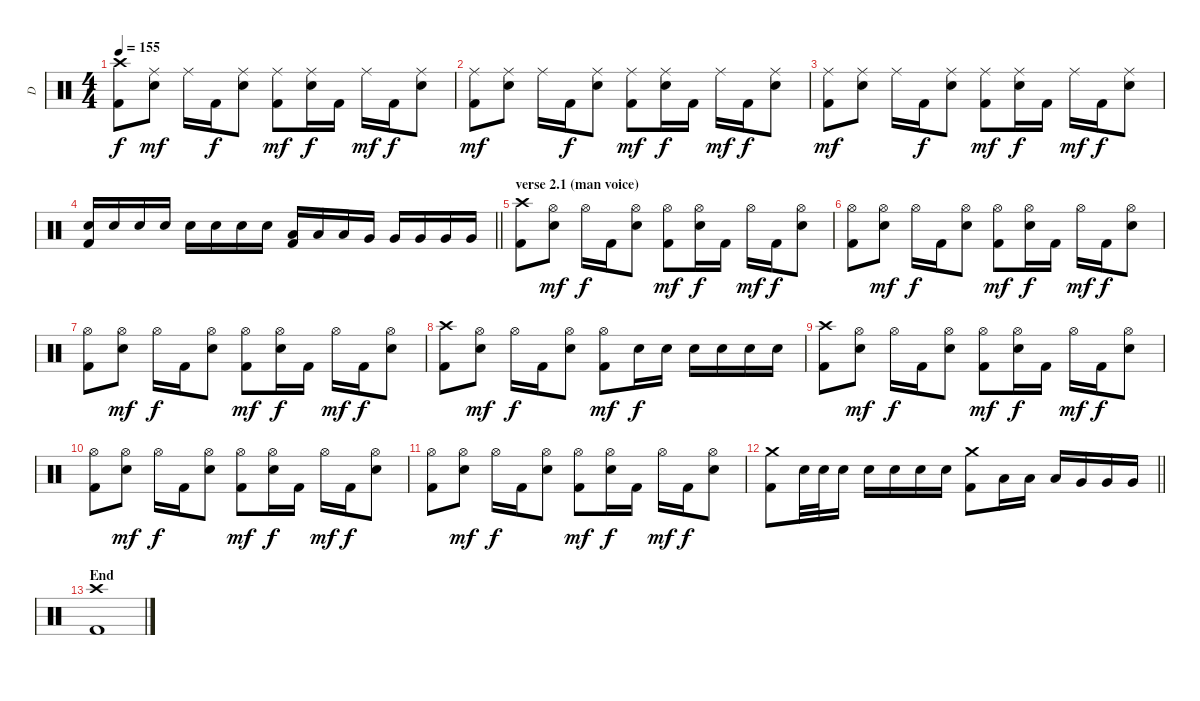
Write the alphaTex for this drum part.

\track ("D" "D") {instrument percussion}
\staff {score}
\articulation defaults
\ts (4 4)
\tempo 155
\clef neutral
\ks c
("Kick (hit) 2" "Crash high (hit)").8{dy f} ("Electric Snare (hit)" "Ride (middle)").8{dy mf} "Ride (middle)".16 "Kick (hit) 2".16{dy f} ("Electric Snare (hit)" "Ride (middle)").8 ("Kick (hit) 2" "Ride (middle)").8{dy mf} ("Electric Snare (hit)" "Ride (middle)").16{dy f} "Kick (hit) 2".16 "Ride (middle)".16{dy mf} "Kick (hit) 2".16{dy f} ("Electric Snare (hit)" "Ride (middle)").8 |
("Kick (hit) 2" "Ride (middle)").8{dy mf} ("Electric Snare (hit)" "Ride (middle)").8 "Ride (middle)".16 "Kick (hit) 2".16{dy f} ("Electric Snare (hit)" "Ride (middle)").8 ("Kick (hit) 2" "Ride (middle)").8{dy mf} ("Electric Snare (hit)" "Ride (middle)").16{dy f} "Kick (hit) 2".16 "Ride (middle)".16{dy mf} "Kick (hit) 2".16{dy f} ("Electric Snare (hit)" "Ride (middle)").8 |
("Kick (hit) 2" "Ride (middle)").8{dy mf} ("Electric Snare (hit)" "Ride (middle)").8 "Ride (middle)".16 "Kick (hit) 2".16{dy f} ("Electric Snare (hit)" "Ride (middle)").8 ("Kick (hit) 2" "Ride (middle)").8{dy mf} ("Electric Snare (hit)" "Ride (middle)").16{dy f} "Kick (hit) 2".16 "Ride (middle)".16{dy mf} "Kick (hit) 2".16{dy f} ("Electric Snare (hit)" "Ride (middle)").8 |
\barLineRight lightlight
("Electric Snare (hit)" "Kick (hit) 2").16 "Electric Snare (hit)".16 "Electric Snare (hit)".16 "Electric Snare (hit)".16 "Electric Snare (hit)".16 "Electric Snare (hit)".16 "Electric Snare (hit)".16 "Electric Snare (hit)".16 ("Low Tom (hit)" "Kick (hit) 2").16 "Low Tom (hit)".16 "Low Tom (hit)".16 "Very Low Tom (hit)".16 "Very Low Tom (hit)".16 "Very Low Tom (hit)".16 "Very Low Tom (hit)".16 "Very Low Tom (hit)".16 |
\section ("" "verse 2.1 (man voice)")
("Kick (hit) 2" "Crash high (hit)").8 ("Electric Snare (hit)" "Hi-Hat (open)").8{dy mf} "Hi-Hat (open)".16{dy f} "Kick (hit) 2".16 ("Electric Snare (hit)" "Hi-Hat (open)").8 ("Kick (hit) 2" "Hi-Hat (open)").8{dy mf} ("Electric Snare (hit)" "Hi-Hat (open)").16{dy f} "Kick (hit) 2".16 "Hi-Hat (open)".16{dy mf} "Kick (hit) 2".16{dy f} ("Electric Snare (hit)" "Hi-Hat (open)").8 |
("Kick (hit) 2" "Hi-Hat (open)").8 ("Electric Snare (hit)" "Hi-Hat (open)").8{dy mf} "Hi-Hat (open)".16{dy f} "Kick (hit) 2".16 ("Electric Snare (hit)" "Hi-Hat (open)").8 ("Kick (hit) 2" "Hi-Hat (open)").8{dy mf} ("Electric Snare (hit)" "Hi-Hat (open)").16{dy f} "Kick (hit) 2".16 "Hi-Hat (open)".16{dy mf} "Kick (hit) 2".16{dy f} ("Electric Snare (hit)" "Hi-Hat (open)").8 |
("Kick (hit) 2" "Hi-Hat (open)").8 ("Electric Snare (hit)" "Hi-Hat (open)").8{dy mf} "Hi-Hat (open)".16{dy f} "Kick (hit) 2".16 ("Electric Snare (hit)" "Hi-Hat (open)").8 ("Kick (hit) 2" "Hi-Hat (open)").8{dy mf} ("Electric Snare (hit)" "Hi-Hat (open)").16{dy f} "Kick (hit) 2".16 "Hi-Hat (open)".16{dy mf} "Kick (hit) 2".16{dy f} ("Electric Snare (hit)" "Hi-Hat (open)").8 |
("Kick (hit) 2" "Crash high (hit)").8 ("Electric Snare (hit)" "Hi-Hat (open)").8{dy mf} "Hi-Hat (open)".16{dy f} "Kick (hit) 2".16 ("Electric Snare (hit)" "Hi-Hat (open)").8 ("Kick (hit) 2" "Hi-Hat (open)").8{dy mf} "Electric Snare (hit)".16{dy f} "Electric Snare (hit)".16 "Electric Snare (hit)".16 "Electric Snare (hit)".16 "Electric Snare (hit)".16 "Electric Snare (hit)".16 |
("Kick (hit) 2" "Crash high (hit)").8 ("Electric Snare (hit)" "Hi-Hat (open)").8{dy mf} "Hi-Hat (open)".16{dy f} "Kick (hit) 2".16 ("Electric Snare (hit)" "Hi-Hat (open)").8 ("Kick (hit) 2" "Hi-Hat (open)").8{dy mf} ("Electric Snare (hit)" "Hi-Hat (open)").16{dy f} "Kick (hit) 2".16 "Hi-Hat (open)".16{dy mf} "Kick (hit) 2".16{dy f} ("Electric Snare (hit)" "Hi-Hat (open)").8 |
("Kick (hit) 2" "Hi-Hat (open)").8 ("Electric Snare (hit)" "Hi-Hat (open)").8{dy mf} "Hi-Hat (open)".16{dy f} "Kick (hit) 2".16 ("Electric Snare (hit)" "Hi-Hat (open)").8 ("Kick (hit) 2" "Hi-Hat (open)").8{dy mf} ("Electric Snare (hit)" "Hi-Hat (open)").16{dy f} "Kick (hit) 2".16 "Hi-Hat (open)".16{dy mf} "Kick (hit) 2".16{dy f} ("Electric Snare (hit)" "Hi-Hat (open)").8 |
("Kick (hit) 2" "Hi-Hat (open)").8 ("Electric Snare (hit)" "Hi-Hat (open)").8{dy mf} "Hi-Hat (open)".16{dy f} "Kick (hit) 2".16 ("Electric Snare (hit)" "Hi-Hat (open)").8 ("Kick (hit) 2" "Hi-Hat (open)").8{dy mf} ("Electric Snare (hit)" "Hi-Hat (open)").16{dy f} "Kick (hit) 2".16 "Hi-Hat (open)".16{dy mf} "Kick (hit) 2".16{dy f} ("Electric Snare (hit)" "Hi-Hat (open)").8 |
\barLineRight lightlight
("Kick (hit) 2" "Crash medium (hit)").8 "Electric Snare (hit)".32 "Electric Snare (hit)".32 "Electric Snare (hit)".16 "Electric Snare (hit)".16 "Electric Snare (hit)".16 "Electric Snare (hit)".16 "Electric Snare (hit)".16 ("Kick (hit) 2" "Crash medium (hit)").8 "Low Tom (hit)".16 "Low Tom (hit)".16 "Low Tom (hit)".16 "Very Low Tom (hit)".16 "Very Low Tom (hit)".16 "Very Low Tom (hit)".16 |
\section ("" "End")
("Crash high (hit)" "Kick (hit) 2").1
